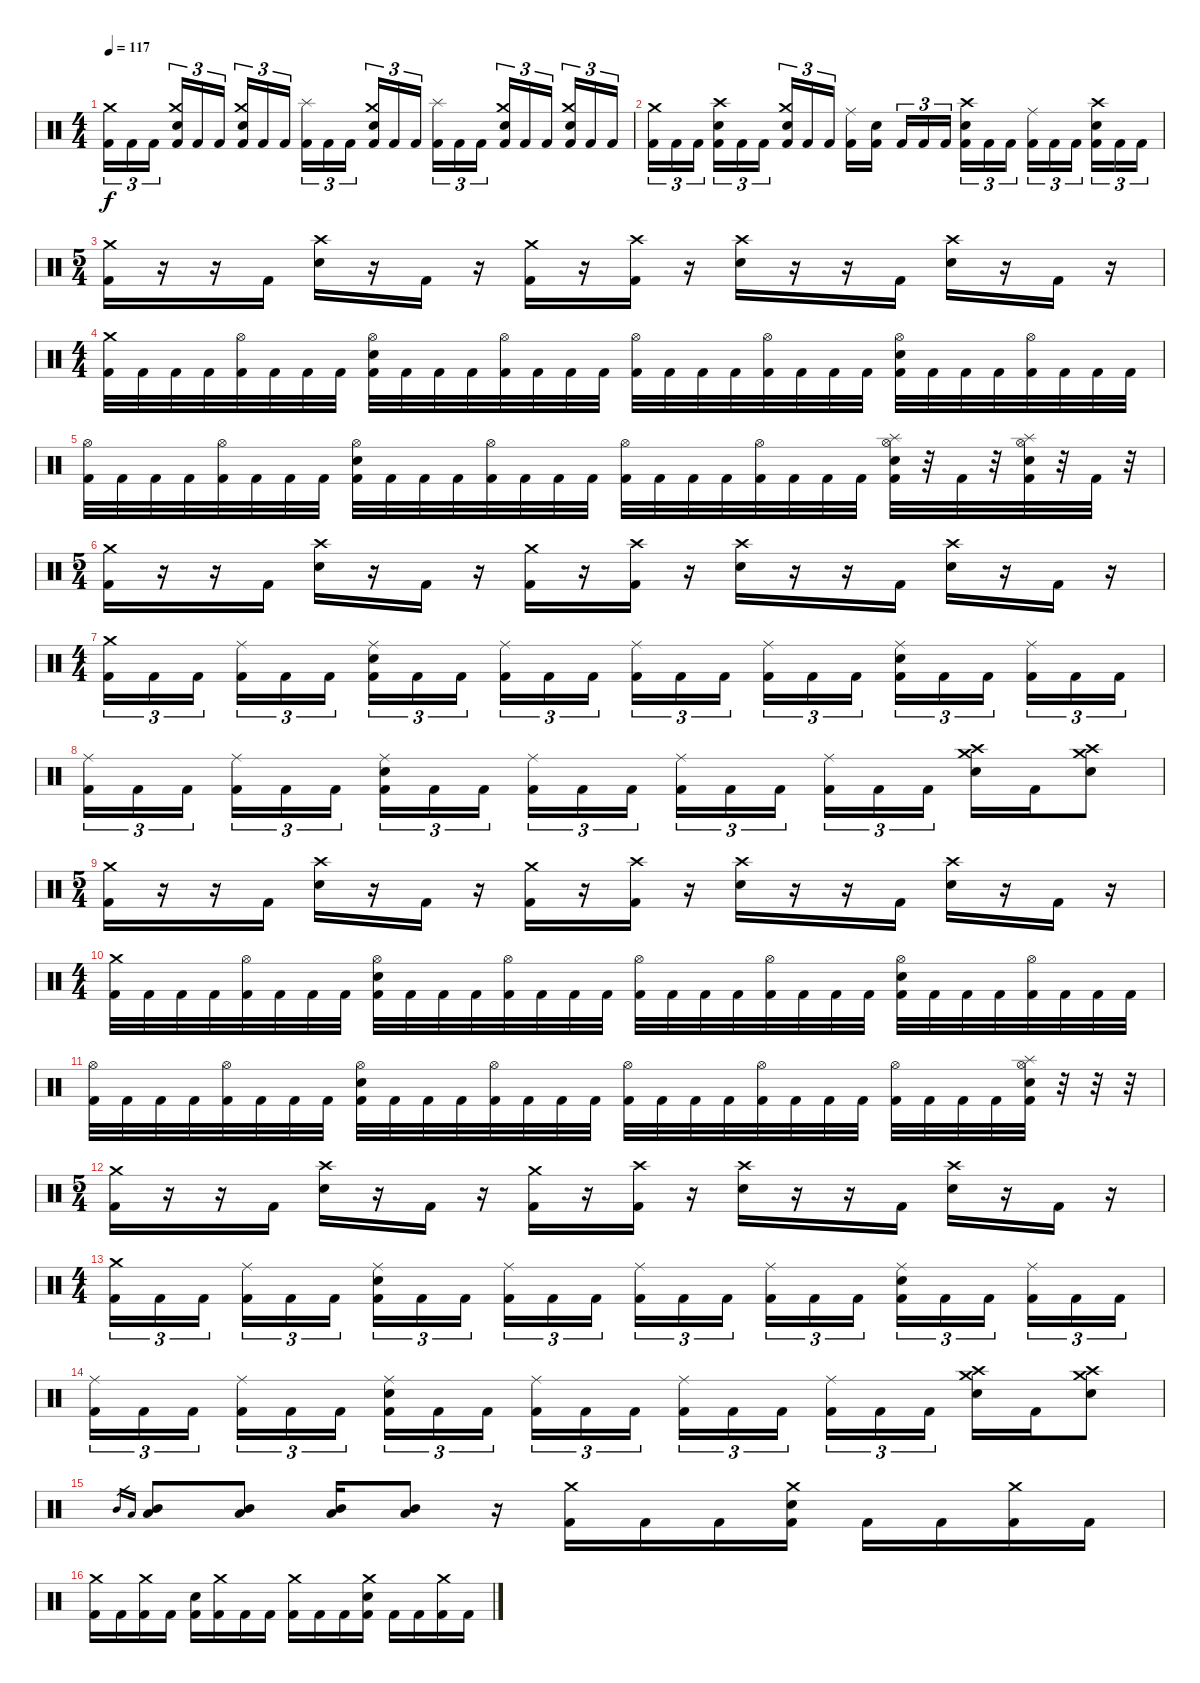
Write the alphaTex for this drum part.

\track "" {instrument percussion}
\staff {score}
\articulation defaults
\ts (4 4)
\tempo 117
\clef neutral
\ks c
("Kick (hit) 2" "Crash medium (hit)").16{tu (3 2) dy f} "Kick (hit) 2".16{tu (3 2)} "Kick (hit) 2".16{tu (3 2)} ("Kick (hit) 2" "Electric Snare (hit)" "Crash medium (hit)").16{tu (3 2)} "Kick (hit) 2".16{tu (3 2)} "Kick (hit) 2".16{tu (3 2)} ("Kick (hit) 2" "Electric Snare (hit)" "Crash medium (hit)").16{tu (3 2)} "Kick (hit) 2".16{tu (3 2)} "Kick (hit) 2".16{tu (3 2)} ("Kick (hit) 2" "Splash (hit)").16{tu (3 2)} "Kick (hit) 2".16{tu (3 2)} "Kick (hit) 2".16{tu (3 2)} ("Kick (hit) 2" "Electric Snare (hit)" "Crash medium (hit)").16{tu (3 2)} "Kick (hit) 2".16{tu (3 2)} "Kick (hit) 2".16{tu (3 2)} ("Kick (hit) 2" "Splash (hit)").16{tu (3 2)} "Kick (hit) 2".16{tu (3 2)} "Kick (hit) 2".16{tu (3 2)} ("Kick (hit) 2" "Electric Snare (hit)" "Crash medium (hit)").16{tu (3 2)} "Kick (hit) 2".16{tu (3 2)} "Kick (hit) 2".16{tu (3 2)} ("Kick (hit) 2" "Electric Snare (hit)" "Crash medium (hit)").16{tu (3 2)} "Kick (hit) 2".16{tu (3 2)} "Kick (hit) 2".16{tu (3 2)} |
("Kick (hit) 2" "Crash medium (hit)").16{tu (3 2)} "Kick (hit) 2".16{tu (3 2)} "Kick (hit) 2".16{tu (3 2)} ("Kick (hit) 2" "Electric Snare (hit)" "Crash high (hit)").16{tu (3 2)} "Kick (hit) 2".16{tu (3 2)} "Kick (hit) 2".16{tu (3 2)} ("Kick (hit) 2" "Electric Snare (hit)" "Crash medium (hit)").16{tu (3 2)} "Kick (hit) 2".16{tu (3 2)} "Kick (hit) 2".16{tu (3 2)} ("Kick (hit) 2" "Ride (middle)").16 ("Kick (hit) 2" "Electric Snare (hit)").16 "Kick (hit) 2".16{tu (3 2)} "Kick (hit) 2".16{tu (3 2)} "Kick (hit) 2".16{tu (3 2)} ("Kick (hit) 2" "Electric Snare (hit)" "Crash high (hit)").16{tu (3 2)} "Kick (hit) 2".16{tu (3 2)} "Kick (hit) 2".16{tu (3 2)} ("Kick (hit) 2" "Ride (middle)").16{tu (3 2)} "Kick (hit) 2".16{tu (3 2)} "Kick (hit) 2".16{tu (3 2)} ("Kick (hit) 2" "Electric Snare (hit)" "Crash high (hit)").16{tu (3 2)} "Kick (hit) 2".16{tu (3 2)} "Kick (hit) 2".16{tu (3 2)} |
\ts (5 4)
("Kick (hit) 2" "Crash medium (hit)").16 r.16 r.16 "Kick (hit) 2".16 ("Electric Snare (hit)" "Crash high (hit)").16 r.16 "Kick (hit) 2".16 r.16 ("Kick (hit) 2" "Crash medium (hit)").16 r.16 ("Kick (hit) 2" "Crash high (hit)").16 r.16 ("Electric Snare (hit)" "Crash high (hit)").16 r.16 r.16 "Kick (hit) 2".16 ("Electric Snare (hit)" "Crash high (hit)").16 r.16 "Kick (hit) 2".16 r.16 |
\ts (4 4)
("Kick (hit) 2" "Crash medium (hit)").32 "Kick (hit) 2".32 "Kick (hit) 2".32 "Kick (hit) 2".32 ("Kick (hit) 2" "Hi-Hat (open)").32 "Kick (hit) 2".32 "Kick (hit) 2".32 "Kick (hit) 2".32 ("Kick (hit) 2" "Electric Snare (hit)" "Hi-Hat (open)").32 "Kick (hit) 2".32 "Kick (hit) 2".32 "Kick (hit) 2".32 ("Kick (hit) 2" "Hi-Hat (open)").32 "Kick (hit) 2".32 "Kick (hit) 2".32 "Kick (hit) 2".32 ("Kick (hit) 2" "Hi-Hat (open)").32 "Kick (hit) 2".32 "Kick (hit) 2".32 "Kick (hit) 2".32 ("Kick (hit) 2" "Hi-Hat (open)").32 "Kick (hit) 2".32 "Kick (hit) 2".32 "Kick (hit) 2".32 ("Kick (hit) 2" "Electric Snare (hit)" "Hi-Hat (open)").32 "Kick (hit) 2".32 "Kick (hit) 2".32 "Kick (hit) 2".32 ("Kick (hit) 2" "Hi-Hat (open)").32 "Kick (hit) 2".32 "Kick (hit) 2".32 "Kick (hit) 2".32 |
("Kick (hit) 2" "Hi-Hat (open)").32 "Kick (hit) 2".32 "Kick (hit) 2".32 "Kick (hit) 2".32 ("Kick (hit) 2" "Hi-Hat (open)").32 "Kick (hit) 2".32 "Kick (hit) 2".32 "Kick (hit) 2".32 ("Kick (hit) 2" "Electric Snare (hit)" "Hi-Hat (open)").32 "Kick (hit) 2".32 "Kick (hit) 2".32 "Kick (hit) 2".32 ("Kick (hit) 2" "Hi-Hat (open)").32 "Kick (hit) 2".32 "Kick (hit) 2".32 "Kick (hit) 2".32 ("Kick (hit) 2" "Hi-Hat (open)").32 "Kick (hit) 2".32 "Kick (hit) 2".32 "Kick (hit) 2".32 ("Kick (hit) 2" "Hi-Hat (open)").32 "Kick (hit) 2".32 "Kick (hit) 2".32 "Kick (hit) 2".32 ("Kick (hit) 2" "Electric Snare (hit)" "Splash (hit)" "Hi-Hat (open)").32 r.32 "Kick (hit) 2".32 r.32 ("Kick (hit) 2" "Electric Snare (hit)" "Splash (hit)" "Hi-Hat (open)").32 r.32 "Kick (hit) 2".32 r.32 |
\ts (5 4)
("Kick (hit) 2" "Crash medium (hit)").16 r.16 r.16 "Kick (hit) 2".16 ("Electric Snare (hit)" "Crash high (hit)").16 r.16 "Kick (hit) 2".16 r.16 ("Kick (hit) 2" "Crash medium (hit)").16 r.16 ("Kick (hit) 2" "Crash high (hit)").16 r.16 ("Electric Snare (hit)" "Crash high (hit)").16 r.16 r.16 "Kick (hit) 2".16 ("Electric Snare (hit)" "Crash high (hit)").16 r.16 "Kick (hit) 2".16 r.16 |
\ts (4 4)
("Kick (hit) 2" "Crash medium (hit)").16{tu (3 2)} "Kick (hit) 2".16{tu (3 2)} "Kick (hit) 2".16{tu (3 2)} ("Kick (hit) 2" "Ride (middle)").16{tu (3 2)} "Kick (hit) 2".16{tu (3 2)} "Kick (hit) 2".16{tu (3 2)} ("Kick (hit) 2" "Electric Snare (hit)" "Ride (middle)").16{tu (3 2)} "Kick (hit) 2".16{tu (3 2)} "Kick (hit) 2".16{tu (3 2)} ("Kick (hit) 2" "Ride (middle)").16{tu (3 2)} "Kick (hit) 2".16{tu (3 2)} "Kick (hit) 2".16{tu (3 2)} ("Kick (hit) 2" "Ride (middle)").16{tu (3 2)} "Kick (hit) 2".16{tu (3 2)} "Kick (hit) 2".16{tu (3 2)} ("Kick (hit) 2" "Ride (middle)").16{tu (3 2)} "Kick (hit) 2".16{tu (3 2)} "Kick (hit) 2".16{tu (3 2)} ("Kick (hit) 2" "Electric Snare (hit)" "Ride (middle)").16{tu (3 2)} "Kick (hit) 2".16{tu (3 2)} "Kick (hit) 2".16{tu (3 2)} ("Kick (hit) 2" "Ride (middle)").16{tu (3 2)} "Kick (hit) 2".16{tu (3 2)} "Kick (hit) 2".16{tu (3 2)} |
("Kick (hit) 2" "Ride (middle)").16{tu (3 2)} "Kick (hit) 2".16{tu (3 2)} "Kick (hit) 2".16{tu (3 2)} ("Kick (hit) 2" "Ride (middle)").16{tu (3 2)} "Kick (hit) 2".16{tu (3 2)} "Kick (hit) 2".16{tu (3 2)} ("Kick (hit) 2" "Electric Snare (hit)" "Ride (middle)").16{tu (3 2)} "Kick (hit) 2".16{tu (3 2)} "Kick (hit) 2".16{tu (3 2)} ("Kick (hit) 2" "Ride (middle)").16{tu (3 2)} "Kick (hit) 2".16{tu (3 2)} "Kick (hit) 2".16{tu (3 2)} ("Kick (hit) 2" "Ride (middle)").16{tu (3 2)} "Kick (hit) 2".16{tu (3 2)} "Kick (hit) 2".16{tu (3 2)} ("Kick (hit) 2" "Ride (middle)").16{tu (3 2)} "Kick (hit) 2".16{tu (3 2)} "Kick (hit) 2".16{tu (3 2)} ("Electric Snare (hit)" "Crash high (hit)" "Crash medium (hit)").16 "Kick (hit) 2".16 ("Electric Snare (hit)" "Crash high (hit)" "Crash medium (hit)").8 |
\ts (5 4)
("Kick (hit) 2" "Crash medium (hit)").16 r.16 r.16 "Kick (hit) 2".16 ("Electric Snare (hit)" "Crash high (hit)").16 r.16 "Kick (hit) 2".16 r.16 ("Kick (hit) 2" "Crash medium (hit)").16 r.16 ("Kick (hit) 2" "Crash high (hit)").16 r.16 ("Electric Snare (hit)" "Crash high (hit)").16 r.16 r.16 "Kick (hit) 2".16 ("Electric Snare (hit)" "Crash high (hit)").16 r.16 "Kick (hit) 2".16 r.16 |
\ts (4 4)
("Kick (hit) 2" "Crash medium (hit)").32 "Kick (hit) 2".32 "Kick (hit) 2".32 "Kick (hit) 2".32 ("Kick (hit) 2" "Hi-Hat (open)").32 "Kick (hit) 2".32 "Kick (hit) 2".32 "Kick (hit) 2".32 ("Kick (hit) 2" "Electric Snare (hit)" "Hi-Hat (open)").32 "Kick (hit) 2".32 "Kick (hit) 2".32 "Kick (hit) 2".32 ("Kick (hit) 2" "Hi-Hat (open)").32 "Kick (hit) 2".32 "Kick (hit) 2".32 "Kick (hit) 2".32 ("Kick (hit) 2" "Hi-Hat (open)").32 "Kick (hit) 2".32 "Kick (hit) 2".32 "Kick (hit) 2".32 ("Kick (hit) 2" "Hi-Hat (open)").32 "Kick (hit) 2".32 "Kick (hit) 2".32 "Kick (hit) 2".32 ("Kick (hit) 2" "Electric Snare (hit)" "Hi-Hat (open)").32 "Kick (hit) 2".32 "Kick (hit) 2".32 "Kick (hit) 2".32 ("Kick (hit) 2" "Hi-Hat (open)").32 "Kick (hit) 2".32 "Kick (hit) 2".32 "Kick (hit) 2".32 |
("Kick (hit) 2" "Hi-Hat (open)").32 "Kick (hit) 2".32 "Kick (hit) 2".32 "Kick (hit) 2".32 ("Kick (hit) 2" "Hi-Hat (open)").32 "Kick (hit) 2".32 "Kick (hit) 2".32 "Kick (hit) 2".32 ("Kick (hit) 2" "Electric Snare (hit)" "Hi-Hat (open)").32 "Kick (hit) 2".32 "Kick (hit) 2".32 "Kick (hit) 2".32 ("Kick (hit) 2" "Hi-Hat (open)").32 "Kick (hit) 2".32 "Kick (hit) 2".32 "Kick (hit) 2".32 ("Kick (hit) 2" "Hi-Hat (open)").32 "Kick (hit) 2".32 "Kick (hit) 2".32 "Kick (hit) 2".32 ("Kick (hit) 2" "Hi-Hat (open)").32 "Kick (hit) 2".32 "Kick (hit) 2".32 "Kick (hit) 2".32 ("Kick (hit) 2" "Hi-Hat (open)").32 "Kick (hit) 2".32 "Kick (hit) 2".32 "Kick (hit) 2".32 ("Kick (hit) 2" "Electric Snare (hit)" "Splash (hit)" "Hi-Hat (open)").32 r.32 r.32 r.32 |
\ts (5 4)
("Kick (hit) 2" "Crash medium (hit)").16 r.16 r.16 "Kick (hit) 2".16 ("Electric Snare (hit)" "Crash high (hit)").16 r.16 "Kick (hit) 2".16 r.16 ("Kick (hit) 2" "Crash medium (hit)").16 r.16 ("Kick (hit) 2" "Crash high (hit)").16 r.16 ("Electric Snare (hit)" "Crash high (hit)").16 r.16 r.16 "Kick (hit) 2".16 ("Electric Snare (hit)" "Crash high (hit)").16 r.16 "Kick (hit) 2".16 r.16 |
\ts (4 4)
("Kick (hit) 2" "Crash medium (hit)").16{tu (3 2)} "Kick (hit) 2".16{tu (3 2)} "Kick (hit) 2".16{tu (3 2)} ("Kick (hit) 2" "Ride (middle)").16{tu (3 2)} "Kick (hit) 2".16{tu (3 2)} "Kick (hit) 2".16{tu (3 2)} ("Kick (hit) 2" "Electric Snare (hit)" "Ride (middle)").16{tu (3 2)} "Kick (hit) 2".16{tu (3 2)} "Kick (hit) 2".16{tu (3 2)} ("Kick (hit) 2" "Ride (middle)").16{tu (3 2)} "Kick (hit) 2".16{tu (3 2)} "Kick (hit) 2".16{tu (3 2)} ("Kick (hit) 2" "Ride (middle)").16{tu (3 2)} "Kick (hit) 2".16{tu (3 2)} "Kick (hit) 2".16{tu (3 2)} ("Kick (hit) 2" "Ride (middle)").16{tu (3 2)} "Kick (hit) 2".16{tu (3 2)} "Kick (hit) 2".16{tu (3 2)} ("Kick (hit) 2" "Electric Snare (hit)" "Ride (middle)").16{tu (3 2)} "Kick (hit) 2".16{tu (3 2)} "Kick (hit) 2".16{tu (3 2)} ("Kick (hit) 2" "Ride (middle)").16{tu (3 2)} "Kick (hit) 2".16{tu (3 2)} "Kick (hit) 2".16{tu (3 2)} |
("Kick (hit) 2" "Ride (middle)").16{tu (3 2)} "Kick (hit) 2".16{tu (3 2)} "Kick (hit) 2".16{tu (3 2)} ("Kick (hit) 2" "Ride (middle)").16{tu (3 2)} "Kick (hit) 2".16{tu (3 2)} "Kick (hit) 2".16{tu (3 2)} ("Kick (hit) 2" "Electric Snare (hit)" "Ride (middle)").16{tu (3 2)} "Kick (hit) 2".16{tu (3 2)} "Kick (hit) 2".16{tu (3 2)} ("Kick (hit) 2" "Ride (middle)").16{tu (3 2)} "Kick (hit) 2".16{tu (3 2)} "Kick (hit) 2".16{tu (3 2)} ("Kick (hit) 2" "Ride (middle)").16{tu (3 2)} "Kick (hit) 2".16{tu (3 2)} "Kick (hit) 2".16{tu (3 2)} ("Kick (hit) 2" "Ride (middle)").16{tu (3 2)} "Kick (hit) 2".16{tu (3 2)} "Kick (hit) 2".16{tu (3 2)} ("Electric Snare (hit)" "Crash high (hit)" "Crash medium (hit)").16 "Kick (hit) 2".16 ("Electric Snare (hit)" "Crash high (hit)" "Crash medium (hit)").8 |
"Mid Tom (hit)".16{gr} "Low Tom (hit)".16{gr} ("Mid Tom (hit)" "Low Tom (hit)").8 ("Mid Tom (hit)" "Low Tom (hit)").8 ("Mid Tom (hit)" "Low Tom (hit)").16 ("Mid Tom (hit)" "Low Tom (hit)").8 r.16 ("Kick (hit) 2" "Crash medium (hit)").16 "Kick (hit) 2".16 "Kick (hit) 2".16 ("Kick (hit) 2" "Electric Snare (hit)" "Crash medium (hit)").16 "Kick (hit) 2".16 "Kick (hit) 2".16 ("Kick (hit) 2" "Crash medium (hit)").16 "Kick (hit) 2".16 |
("Kick (hit) 2" "Crash medium (hit)").16 "Kick (hit) 2".16 ("Kick (hit) 2" "Crash medium (hit)").16 "Kick (hit) 2".16 ("Kick (hit) 2" "Electric Snare (hit)").16 ("Kick (hit) 2" "Crash medium (hit)").16 "Kick (hit) 2".16 "Kick (hit) 2".16 ("Kick (hit) 2" "Crash medium (hit)").16 "Kick (hit) 2".16 "Kick (hit) 2".16 ("Kick (hit) 2" "Electric Snare (hit)" "Crash medium (hit)").16 "Kick (hit) 2".16 "Kick (hit) 2".16 ("Kick (hit) 2" "Crash medium (hit)").16 "Kick (hit) 2".16
